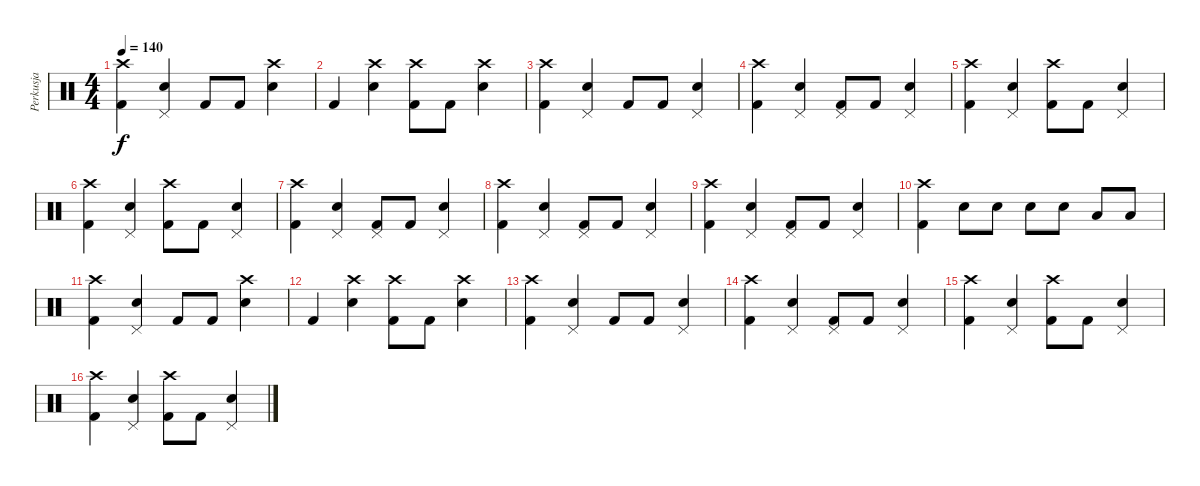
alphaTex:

\track ("Perkusja" "Perkusja") {instrument percussion}
\staff {score}
\articulation defaults
\ts (4 4)
\tempo 140
\clef neutral
\ks c
("Crash high (hit)" "Kick (hit) 2").4{dy f} ("Pedal Hi-Hat (hit)" "Snare (hit) 2").4 "Kick (hit) 2".8 "Kick (hit) 2".8 ("Crash high (hit)" "Snare (hit) 2").4 |
"Kick (hit) 2".4 ("Crash high (hit)" "Snare (hit) 2").4 ("Crash high (hit)" "Kick (hit) 2").8 "Kick (hit) 2".8 ("Crash high (hit)" "Snare (hit) 2").4 |
("Crash high (hit)" "Kick (hit) 2").4 ("Pedal Hi-Hat (hit)" "Snare (hit) 2").4 "Kick (hit) 2".8 "Kick (hit) 2".8 ("Pedal Hi-Hat (hit)" "Snare (hit) 2").4 |
("Crash high (hit)" "Kick (hit) 2").4 ("Pedal Hi-Hat (hit)" "Snare (hit) 2").4 ("Pedal Hi-Hat (hit)" "Kick (hit) 2").8 "Kick (hit) 2".8 ("Pedal Hi-Hat (hit)" "Snare (hit) 2").4 |
("Crash high (hit)" "Kick (hit) 2").4 ("Pedal Hi-Hat (hit)" "Snare (hit) 2").4 ("Crash high (hit)" "Kick (hit) 2").8 "Kick (hit) 2".8 ("Pedal Hi-Hat (hit)" "Snare (hit) 2").4 |
("Crash high (hit)" "Kick (hit) 2").4 ("Pedal Hi-Hat (hit)" "Snare (hit) 2").4 ("Crash high (hit)" "Kick (hit) 2").8 "Kick (hit) 2".8 ("Pedal Hi-Hat (hit)" "Snare (hit) 2").4 |
("Crash high (hit)" "Kick (hit) 2").4 ("Pedal Hi-Hat (hit)" "Snare (hit) 2").4 ("Pedal Hi-Hat (hit)" "Kick (hit) 2").8 "Kick (hit) 2".8 ("Pedal Hi-Hat (hit)" "Snare (hit) 2").4 |
("Crash high (hit)" "Kick (hit) 2").4 ("Pedal Hi-Hat (hit)" "Snare (hit) 2").4 ("Pedal Hi-Hat (hit)" "Kick (hit) 2").8 "Kick (hit) 2".8 ("Pedal Hi-Hat (hit)" "Snare (hit) 2").4 |
("Crash high (hit)" "Kick (hit) 2").4 ("Pedal Hi-Hat (hit)" "Snare (hit) 2").4 ("Pedal Hi-Hat (hit)" "Kick (hit) 2").8 "Kick (hit) 2".8 ("Pedal Hi-Hat (hit)" "Snare (hit) 2").4 |
("Crash high (hit)" "Kick (hit) 2").4 "Snare (hit) 2".8 "Snare (hit) 2".8 "Snare (hit) 2".8 "Snare (hit) 2".8 "Low Tom (hit)".8 "Low Tom (hit)".8 |
("Crash high (hit)" "Kick (hit) 2").4 ("Pedal Hi-Hat (hit)" "Snare (hit) 2").4 "Kick (hit) 2".8 "Kick (hit) 2".8 ("Crash high (hit)" "Snare (hit) 2").4 |
"Kick (hit) 2".4 ("Crash high (hit)" "Snare (hit) 2").4 ("Crash high (hit)" "Kick (hit) 2").8 "Kick (hit) 2".8 ("Crash high (hit)" "Snare (hit) 2").4 |
("Crash high (hit)" "Kick (hit) 2").4 ("Pedal Hi-Hat (hit)" "Snare (hit) 2").4 "Kick (hit) 2".8 "Kick (hit) 2".8 ("Pedal Hi-Hat (hit)" "Snare (hit) 2").4 |
("Crash high (hit)" "Kick (hit) 2").4 ("Pedal Hi-Hat (hit)" "Snare (hit) 2").4 ("Pedal Hi-Hat (hit)" "Kick (hit) 2").8 "Kick (hit) 2".8 ("Pedal Hi-Hat (hit)" "Snare (hit) 2").4 |
("Crash high (hit)" "Kick (hit) 2").4 ("Pedal Hi-Hat (hit)" "Snare (hit) 2").4 ("Crash high (hit)" "Kick (hit) 2").8 "Kick (hit) 2".8 ("Pedal Hi-Hat (hit)" "Snare (hit) 2").4 |
("Crash high (hit)" "Kick (hit) 2").4 ("Pedal Hi-Hat (hit)" "Snare (hit) 2").4 ("Crash high (hit)" "Kick (hit) 2").8 "Kick (hit) 2".8 ("Pedal Hi-Hat (hit)" "Snare (hit) 2").4
